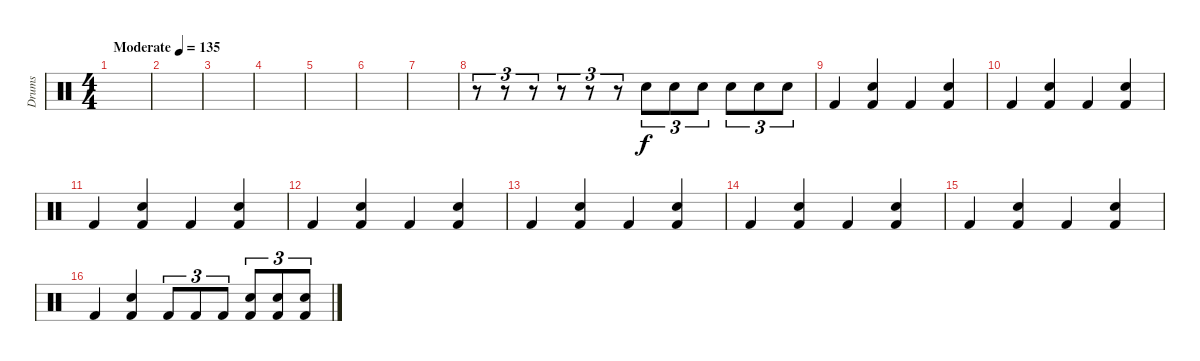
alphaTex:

\track ("Drums" "Drums") {instrument percussion}
\staff {score}
\articulation defaults
\ts (4 4)
\tempo (135 "Moderate")
\clef neutral
\ks c
|
|
|
|
|
|
|
r.8{tu (3 2)} r.8{tu (3 2)} r.8{tu (3 2)} r.8{tu (3 2)} r.8{tu (3 2)} r.8{tu (3 2)} "Snare (hit) 2".8{tu (3 2)} "Snare (hit) 2".8{tu (3 2)} "Snare (hit) 2".8{tu (3 2)} "Snare (hit) 2".8{tu (3 2)} "Snare (hit) 2".8{tu (3 2)} "Snare (hit) 2".8{tu (3 2)} |
"Kick (hit) 2".4 ("Snare (hit) 2" "Kick (hit) 2").4 "Kick (hit) 2".4 ("Snare (hit) 2" "Kick (hit) 2").4 |
"Kick (hit) 2".4 ("Snare (hit) 2" "Kick (hit) 2").4 "Kick (hit) 2".4 ("Snare (hit) 2" "Kick (hit) 2").4 |
"Kick (hit) 2".4 ("Snare (hit) 2" "Kick (hit) 2").4 "Kick (hit) 2".4 ("Snare (hit) 2" "Kick (hit) 2").4 |
"Kick (hit) 2".4 ("Snare (hit) 2" "Kick (hit) 2").4 "Kick (hit) 2".4 ("Snare (hit) 2" "Kick (hit) 2").4 |
"Kick (hit) 2".4 ("Snare (hit) 2" "Kick (hit) 2").4 "Kick (hit) 2".4 ("Snare (hit) 2" "Kick (hit) 2").4 |
"Kick (hit) 2".4 ("Snare (hit) 2" "Kick (hit) 2").4 "Kick (hit) 2".4 ("Snare (hit) 2" "Kick (hit) 2").4 |
"Kick (hit) 2".4 ("Snare (hit) 2" "Kick (hit) 2").4 "Kick (hit) 2".4 ("Snare (hit) 2" "Kick (hit) 2").4 |
"Kick (hit) 2".4 ("Snare (hit) 2" "Kick (hit) 2").4 "Kick (hit) 2".8{tu (3 2)} "Kick (hit) 2".8{tu (3 2)} "Kick (hit) 2".8{tu (3 2)} ("Snare (hit) 2" "Kick (hit) 2").8{tu (3 2)} ("Snare (hit) 2" "Kick (hit) 2").8{tu (3 2)} ("Snare (hit) 2" "Kick (hit) 2").8{tu (3 2)}
